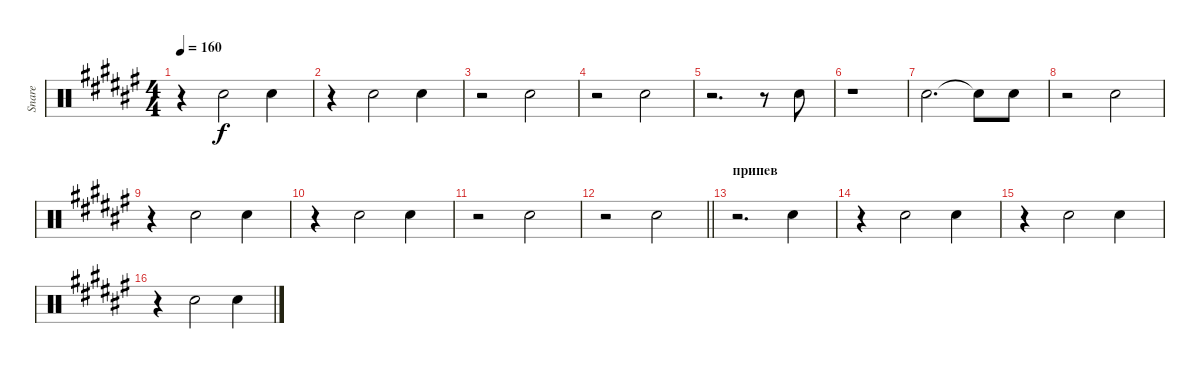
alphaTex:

\track ("Snare" "Snare") {instrument percussion}
\staff {score}
\articulation defaults
\ts (4 4)
\tempo 160
\clef neutral
\ks d#minor
r.4{dy f} "Electric Snare (hit)".2 "Electric Snare (hit)".4 |
r.4 "Electric Snare (hit)".2 "Electric Snare (hit)".4 |
r.2 "Electric Snare (hit)".2 |
r.2 "Electric Snare (hit)".2 |
r.2{d} r.8 "Electric Snare (hit)".8 |
r.1 |
"Electric Snare (hit)".2{d} "Electric Snare (hit)"{t}.8 "Electric Snare (hit)".8 |
r.2 "Electric Snare (hit)".2 |
r.4 "Electric Snare (hit)".2 "Electric Snare (hit)".4 |
r.4 "Electric Snare (hit)".2 "Electric Snare (hit)".4 |
r.2 "Electric Snare (hit)".2 |
\barLineRight lightlight
r.2 "Electric Snare (hit)".2 |
\section ("" "припев")
r.2{d} "Electric Snare (hit)".4 |
r.4 "Electric Snare (hit)".2 "Electric Snare (hit)".4 |
r.4 "Electric Snare (hit)".2 "Electric Snare (hit)".4 |
r.4 "Electric Snare (hit)".2 "Electric Snare (hit)".4
